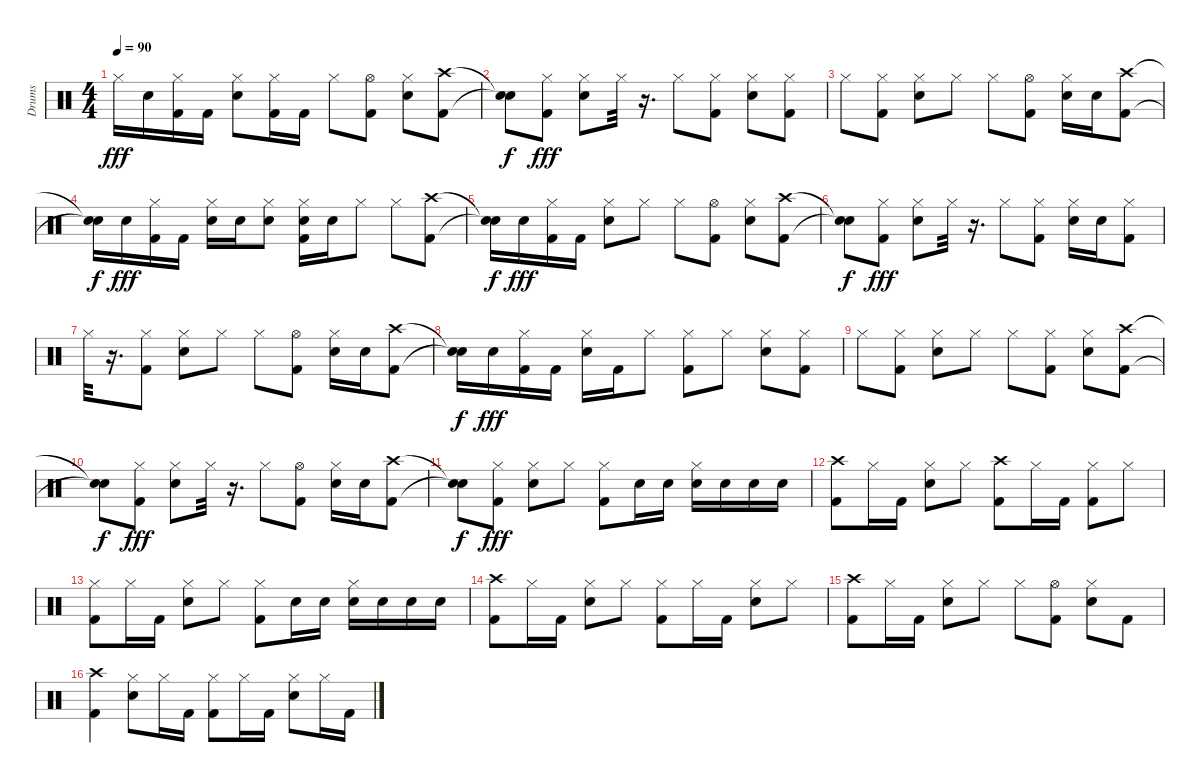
\track ("Drums" "Drums") {instrument percussion}
\staff {score}
\articulation defaults
\ts (4 4)
\tempo 90
\clef neutral
\ks c "Hi-Hat (closed)".16{dy fff} "Snare (hit) 2".16
("Hi-Hat (closed)" "Kick (hit) 2").16 "Kick (hit) 2".16 ("Snare (hit) 2" "Hi-Hat (closed)").8 ("Kick (hit) 2" "Hi-Hat (closed)").16 "Kick (hit) 2".16 "Hi-Hat (closed)".8 ("Kick (hit) 2" "Hi-Hat (open)").8 ("Snare (hit) 2" "Hi-Hat (closed)").8 ("Crash high (hit)" "Kick (hit) 2").8 |
("Snare (hit)"{t} "Snare (hit)"{t}).8{dy f} ("Hi-Hat (closed)" "Kick (hit) 2").8{dy fff} ("Snare (hit) 2" "Hi-Hat (closed)").8 "Hi-Hat (closed)".32 r.16{d} "Hi-Hat (closed)".8 ("Kick (hit) 2" "Hi-Hat (closed)").8 ("Electric Snare (hit)" "Hi-Hat (closed)").8 ("Hi-Hat (closed)" "Kick (hit) 2").8 |
"Hi-Hat (closed)".8 ("Hi-Hat (closed)" "Kick (hit) 2").8 ("Hi-Hat (closed)" "Snare (hit) 2").8 "Hi-Hat (closed)".8 "Hi-Hat (closed)".8 ("Kick (hit) 2" "Hi-Hat (open)").8 ("Snare (hit) 2" "Hi-Hat (closed)").16 "Electric Snare (hit)".16 ("Kick (hit) 2" "Crash high (hit)").8 |
("Snare (hit)"{t} "Snare (hit)"{t}).16{dy f} "Snare (hit) 2".16{dy fff} ("Kick (hit) 2" "Hi-Hat (closed)").16 "Kick (hit) 2".16 ("Hi-Hat (closed)" "Snare (hit) 2").16 "Electric Snare (hit)".16 ("Hi-Hat (closed)" "Electric Snare (hit)").8 ("Snare (hit) 2" "Kick (hit) 2" "Hi-Hat (closed)").16 "Snare (hit) 2".16 "Hi-Hat (closed)".8 "Hi-Hat (closed)".8 ("Crash high (hit)" "Kick (hit) 2").8 |
("Snare (hit)"{t} "Snare (hit)"{t}).16{dy f} "Snare (hit) 2".16{dy fff} ("Hi-Hat (closed)" "Kick (hit) 2").16 "Kick (hit) 2".16 ("Hi-Hat (closed)" "Electric Snare (hit)").8 "Hi-Hat (closed)".8 "Hi-Hat (closed)".8 ("Kick (hit) 2" "Hi-Hat (open)").8 ("Snare (hit) 2" "Hi-Hat (closed)").8 ("Kick (hit) 2" "Crash high (hit)").8 |
("Snare (hit)"{t} "Snare (hit)"{t}).8{dy f} ("Hi-Hat (closed)" "Kick (hit) 2").8{dy fff} ("Snare (hit) 2" "Hi-Hat (closed)").8 "Hi-Hat (closed)".32 r.16{d} "Hi-Hat (closed)".8 ("Kick (hit) 2" "Hi-Hat (closed)").8 ("Hi-Hat (closed)" "Snare (hit) 2").16 "Snare (hit) 2".16 ("Kick (hit) 2" "Hi-Hat (closed)").8 |
"Hi-Hat (closed)".32 r.16{d} ("Hi-Hat (closed)" "Kick (hit) 2").8 ("Hi-Hat (closed)" "Snare (hit) 2").8 "Hi-Hat (closed)".8 "Hi-Hat (closed)".8 ("Kick (hit) 2" "Hi-Hat (open)").8 ("Snare (hit) 2" "Hi-Hat (closed)").16 "Electric Snare (hit)".16 ("Crash high (hit)" "Kick (hit) 2").8 |
("Snare (hit)"{t} "Snare (hit)"{t}).16{dy f} "Electric Snare (hit)".16{dy fff} ("Hi-Hat (closed)" "Kick (hit) 2").16 "Kick (hit) 2".16 ("Hi-Hat (closed)" "Snare (hit) 2").16 "Kick (hit) 2".16 "Hi-Hat (closed)".8 ("Kick (hit) 2" "Hi-Hat (closed)").8 "Hi-Hat (closed)".8 ("Hi-Hat (closed)" "Electric Snare (hit)").8 ("Kick (hit) 2" "Hi-Hat (closed)").8 |
"Hi-Hat (closed)".8 ("Kick (hit) 2" "Hi-Hat (closed)").8 ("Snare (hit) 2" "Hi-Hat (closed)").8 "Hi-Hat (closed)".8 "Hi-Hat (closed)".8 ("Kick (hit) 2" "Hi-Hat (closed)").8 ("Snare (hit) 2" "Hi-Hat (closed)").8 ("Kick (hit) 2" "Crash high (hit)").8 |
("Snare (hit)"{t} "Snare (hit)"{t}).8{dy f} ("Hi-Hat (closed)" "Kick (hit) 2").8{dy fff} ("Snare (hit) 2" "Hi-Hat (closed)").8 "Hi-Hat (closed)".32 r.16{d} "Hi-Hat (closed)".8 ("Kick (hit) 2" "Hi-Hat (open)").8 ("Snare (hit) 2" "Hi-Hat (closed)").16 "Electric Snare (hit)".16 ("Kick (hit) 2" "Crash high (hit)").8 |
("Snare (hit)"{t} "Snare (hit)"{t}).8{dy f} ("Hi-Hat (closed)" "Kick (hit) 2").8{dy fff} ("Hi-Hat (closed)" "Snare (hit) 2").8 "Hi-Hat (closed)".8 ("Hi-Hat (closed)" "Kick (hit) 2").8 "Electric Snare (hit)".16 "Snare (hit) 2".16 ("Snare (hit) 2" "Hi-Hat (closed)").16 "Snare (hit) 2".16 "Snare (hit) 2".16 "Snare (hit) 2".16 |
("Crash high (hit)" "Kick (hit) 2").8 "Hi-Hat (closed)".16 "Kick (hit) 2".16 ("Electric Snare (hit)" "Hi-Hat (closed)").8 "Hi-Hat (closed)".8 ("Kick (hit) 2" "Crash high (hit)").8 "Hi-Hat (closed)".16 "Kick (hit) 2".16 ("Kick (hit) 2" "Hi-Hat (closed)").8 "Hi-Hat (closed)".8 |
("Kick (hit) 2" "Hi-Hat (closed)").8 "Hi-Hat (closed)".16 "Kick (hit) 2".16 ("Electric Snare (hit)" "Hi-Hat (closed)").8 "Hi-Hat (closed)".8 ("Kick (hit) 2" "Hi-Hat (closed)").8 "Snare (hit) 2".16 "Snare (hit) 2".16 ("Hi-Hat (closed)" "Snare (hit) 2").16 "Snare (hit) 2".16 "Electric Snare (hit)".16 "Electric Snare (hit)".16 |
("Kick (hit) 2" "Crash high (hit)").8 "Hi-Hat (closed)".16 "Kick (hit) 2".16 ("Electric Snare (hit)" "Hi-Hat (closed)").8 "Hi-Hat (closed)".8 ("Kick (hit) 2" "Hi-Hat (closed)").8 "Hi-Hat (closed)".16 "Kick (hit) 2".16 ("Snare (hit) 2" "Hi-Hat (closed)").8 "Hi-Hat (closed)".8 |
("Crash high (hit)" "Kick (hit) 2").8 "Hi-Hat (closed)".16 "Kick (hit) 2".16 ("Electric Snare (hit)" "Hi-Hat (closed)").8 "Hi-Hat (closed)".8 "Hi-Hat (closed)".8 ("Hi-Hat (open)" "Kick (hit) 2").8 ("Hi-Hat (closed)" "Snare (hit) 2").8 "Kick (hit) 2".8 |
("Crash high (hit)" "Kick (hit) 2").4 ("Snare (hit) 2" "Hi-Hat (closed)").8 "Hi-Hat (closed)".16 "Kick (hit) 2".16 ("Hi-Hat (closed)" "Kick (hit) 2").8 "Hi-Hat (closed)".16 "Kick (hit) 2".16 ("Hi-Hat (closed)" "Electric Snare (hit)").8 "Hi-Hat (closed)".16 "Kick (hit) 2".16
